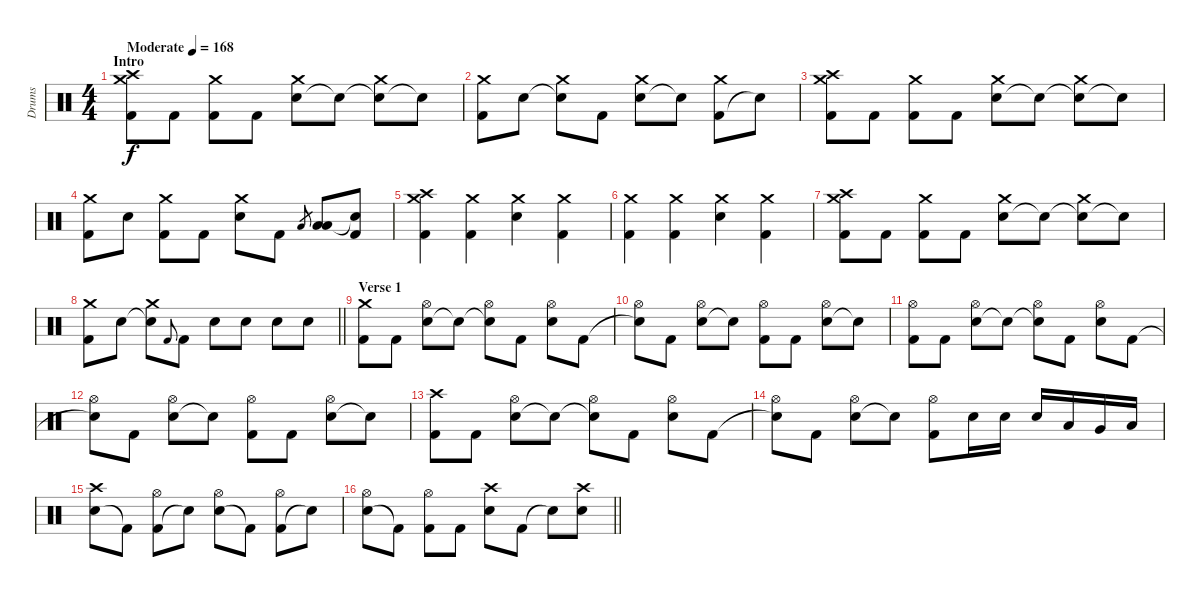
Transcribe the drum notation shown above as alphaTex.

\track ("Drums" "Drums") {instrument percussion}
\staff {score}
\articulation defaults
\ts (4 4)
\section ("" "Intro")
\tempo (168 "Moderate")
\clef neutral
\ks c
("Kick (hit) 2" "Crash medium (hit)" "Crash high (hit)").8{dy f} "Kick (hit) 2".8 ("Kick (hit) 2" "Crash medium (hit)").8 "Kick (hit) 2".8 ("Electric Snare (hit)" "Crash medium (hit)").8 "Snare (hit)"{t}.8 ("Snare (hit)"{t} "Crash medium (hit)").8 "Snare (hit)"{t}.8 |
("Kick (hit) 2" "Crash medium (hit)").8 "Electric Snare (hit)".8 ("Snare (hit)"{t} "Crash medium (hit)").8 "Kick (hit) 2".8 ("Electric Snare (hit)" "Crash medium (hit)").8 "Snare (hit)"{t}.8 ("Kick (hit) 2" "Crash medium (hit)").8 "Snare (hit)"{t}.8 |
("Kick (hit) 2" "Crash medium (hit)" "Crash high (hit)").8 "Kick (hit) 2".8 ("Kick (hit) 2" "Crash medium (hit)").8 "Kick (hit) 2".8 ("Electric Snare (hit)" "Crash medium (hit)").8 "Snare (hit)"{t}.8 ("Snare (hit)"{t} "Crash medium (hit)").8 "Snare (hit)"{t}.8 |
("Kick (hit) 2" "Crash medium (hit)").8 "Electric Snare (hit)".8 ("Kick (hit) 2" "Crash medium (hit)").8 "Kick (hit) 2".8 ("Electric Snare (hit)" "Crash medium (hit)").8 "Kick (hit) 2".8 "Low Tom (hit)".8{gr} ("Low Tom (hit)" "Low Floor Tom (hit)").8 ("Kick (hit) 2" "Snare (hit)"{t}).8 |
("Kick (hit) 2" "Crash medium (hit)" "Crash high (hit)").4 ("Kick (hit) 2" "Crash medium (hit)").4 ("Electric Snare (hit)" "Crash medium (hit)").4 ("Kick (hit) 2" "Crash medium (hit)").4 |
("Kick (hit) 2" "Crash medium (hit)").4 ("Kick (hit) 2" "Crash medium (hit)").4 ("Electric Snare (hit)" "Crash medium (hit)").4 ("Kick (hit) 2" "Crash medium (hit)").4 |
("Kick (hit) 2" "Crash medium (hit)" "Crash high (hit)").8 "Kick (hit) 2".8 ("Kick (hit) 2" "Crash medium (hit)").8 "Kick (hit) 2".8 ("Electric Snare (hit)" "Crash medium (hit)").8 "Snare (hit)"{t}.8 ("Snare (hit)"{t} "Crash medium (hit)").8 "Snare (hit)"{t}.8 |
\barLineRight lightlight
("Kick (hit) 2" "Crash medium (hit)").8 "Electric Snare (hit)".8 ("Snare (hit)"{t} "Crash medium (hit)").8 "Kick (hit) 2".8{gr onbeat} "Kick (hit) 2".8 "Electric Snare (hit)".8 "Electric Snare (hit)".8 "Electric Snare (hit)".8 "Electric Snare (hit)".8 |
\section ("" "Verse 1")
("Kick (hit) 2" "Crash medium (hit)").8 "Kick (hit) 2".8 ("Electric Snare (hit)" "Hi-Hat (open)").8 "Snare (hit)"{t}.8 ("Snare (hit)"{t} "Hi-Hat (open)").8 "Kick (hit) 2".8 ("Electric Snare (hit)" "Hi-Hat (open)").8 "Kick (hit) 2".8 |
("Snare (hit)"{t} "Hi-Hat (open)").8 "Kick (hit) 2".8 ("Electric Snare (hit)" "Hi-Hat (open)").8 "Snare (hit)"{t}.8 ("Kick (hit) 2" "Hi-Hat (open)").8 "Kick (hit) 2".8 ("Electric Snare (hit)" "Hi-Hat (open)").8 "Snare (hit)"{t}.8 |
("Kick (hit) 2" "Hi-Hat (open)").8 "Kick (hit) 2".8 ("Electric Snare (hit)" "Hi-Hat (open)").8 "Snare (hit)"{t}.8 ("Snare (hit)"{t} "Hi-Hat (open)").8 "Kick (hit) 2".8 ("Electric Snare (hit)" "Hi-Hat (open)").8 "Kick (hit) 2".8 |
("Snare (hit)"{t} "Hi-Hat (open)").8 "Kick (hit) 2".8 ("Electric Snare (hit)" "Hi-Hat (open)").8 "Snare (hit)"{t}.8 ("Kick (hit) 2" "Hi-Hat (open)").8 "Kick (hit) 2".8 ("Electric Snare (hit)" "Hi-Hat (open)").8 "Snare (hit)"{t}.8 |
("Kick (hit) 2" "Crash high (hit)").8 "Kick (hit) 2".8 ("Electric Snare (hit)" "Hi-Hat (open)").8 "Snare (hit)"{t}.8 ("Snare (hit)"{t} "Hi-Hat (open)").8 "Kick (hit) 2".8 ("Electric Snare (hit)" "Hi-Hat (open)").8 "Kick (hit) 2".8 |
("Snare (hit)"{t} "Hi-Hat (open)").8 "Kick (hit) 2".8 ("Electric Snare (hit)" "Hi-Hat (open)").8 "Snare (hit)"{t}.8 ("Kick (hit) 2" "Hi-Hat (open)").8 "Electric Snare (hit)".16 "Electric Snare (hit)".16 "Electric Snare (hit)".16 "Low Tom (hit)".16 "Very Low Tom (hit)".16 "Low Floor Tom (hit)".16 |
("Electric Snare (hit)" "Crash high (hit)").8 "Kick (hit) 2"{t}.8 ("Kick (hit) 2" "Hi-Hat (open)").8 "Snare (hit)"{t}.8 ("Electric Snare (hit)" "Hi-Hat (open)").8 "Kick (hit) 2"{t}.8 ("Kick (hit) 2" "Hi-Hat (open)").8 "Snare (hit)"{t}.8 |
\barLineRight lightlight
("Electric Snare (hit)" "Hi-Hat (open)").8 "Kick (hit) 2"{t}.8 ("Kick (hit) 2" "Hi-Hat (open)").8 "Kick (hit) 2".8 ("Electric Snare (hit)" "Crash high (hit)").8 "Kick (hit) 2".8 "Electric Snare (hit)"{t}.8 ("Electric Snare (hit)" "Crash high (hit)").8
